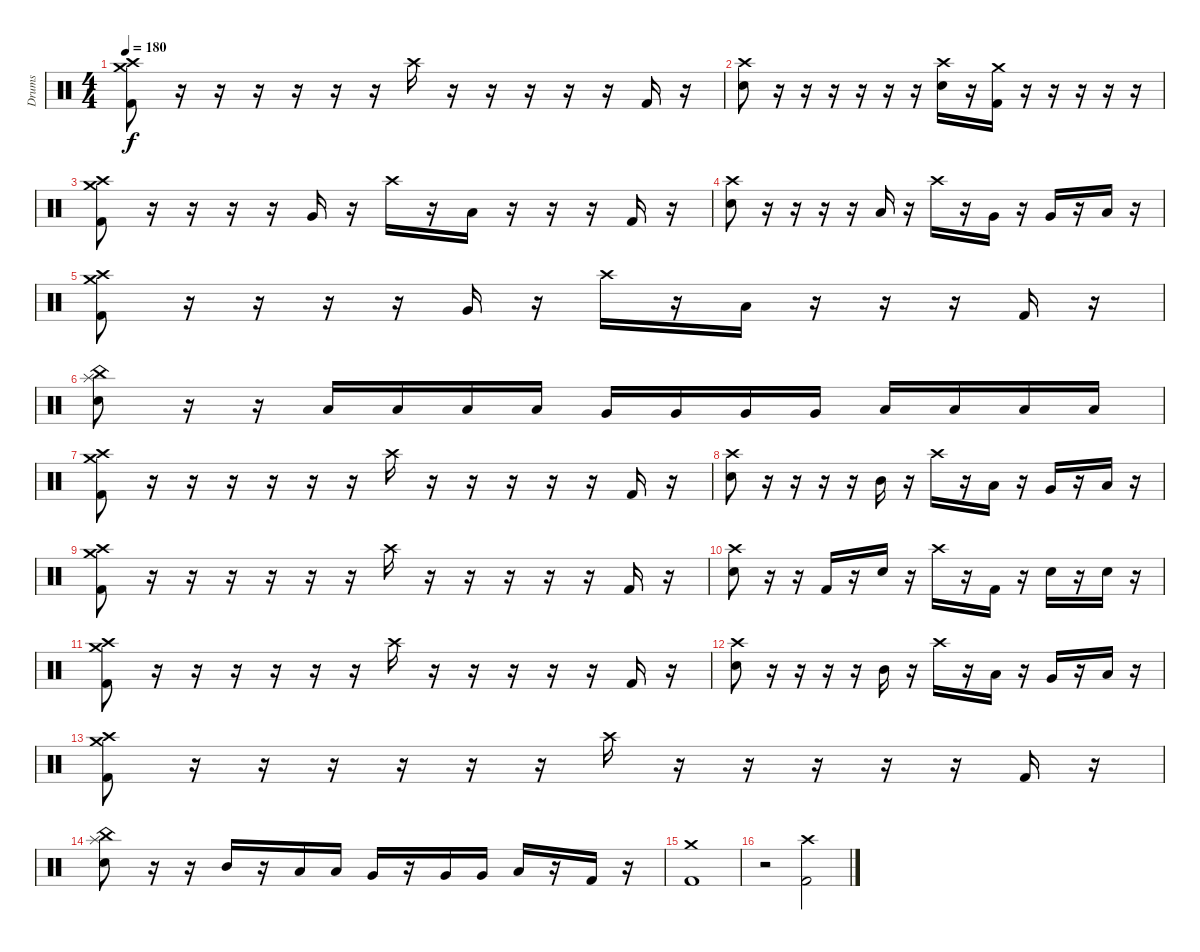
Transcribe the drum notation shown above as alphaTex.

\track ("Drums" "Drums") {instrument percussion}
\staff {score}
\articulation defaults
\ts (4 4)
\tempo 180
\clef neutral
\ks c
("Crash high (hit)" "Crash medium (hit)" "Kick (hit) 2").8{dy f} r.16 r.16 r.16 r.16 r.16 r.16 "Crash high (hit)".16 r.16 r.16 r.16 r.16 r.16 "Kick (hit) 2".16 r.16 |
("Crash high (hit)" "Electric Snare (hit)").8 r.16 r.16 r.16 r.16 r.16 r.16 ("Crash high (hit)" "Electric Snare (hit)").16 r.16 ("Crash medium (hit)" "Kick (hit) 2").16 r.16 r.16 r.16 r.16 r.16 |
("Crash high (hit)" "Crash medium (hit)" "Kick (hit) 2").8 r.16 r.16 r.16 r.16 "Very Low Tom (hit)".16 r.16 "Crash high (hit)".16 r.16 "Low Tom (hit)".16 r.16 r.16 r.16 "Kick (hit) 2".16 r.16 |
("Crash high (hit)" "Electric Snare (hit)").8 r.16 r.16 r.16 r.16 "Low Tom (hit)".16 r.16 "Crash high (hit)".16 r.16 "Very Low Tom (hit)".16 r.16 "Very Low Tom (hit)".16 r.16 "Low Floor Tom (hit)".16 r.16 |
("Crash high (hit)" "Crash medium (hit)" "Kick (hit) 2").8 r.16 r.16 r.16 r.16 "Very Low Tom (hit)".16 r.16 "Crash high (hit)".16 r.16 "Low Tom (hit)".16 r.16 r.16 r.16 "Kick (hit) 2".16 r.16 |
("China (hit)" "Splash (hit)" "Electric Snare (hit)").8 r.16 r.16 "Low Tom (hit)".16 "Low Tom (hit)".16 "Low Tom (hit)".16 "Low Tom (hit)".16 "Very Low Tom (hit)".16 "Very Low Tom (hit)".16 "Very Low Tom (hit)".16 "Very Low Tom (hit)".16 "Low Floor Tom (hit)".16 "Low Floor Tom (hit)".16 "Low Floor Tom (hit)".16 "Low Floor Tom (hit)".16 |
("Crash medium (hit)" "Crash high (hit)" "Kick (hit) 2").8 r.16 r.16 r.16 r.16 r.16 r.16 "Crash high (hit)".16 r.16 r.16 r.16 r.16 r.16 "Kick (hit) 2".16 r.16 |
("Crash high (hit)" "Electric Snare (hit)").8 r.16 r.16 r.16 r.16 "Mid Tom (hit)".16 r.16 "Crash high (hit)".16 r.16 "Low Tom (hit)".16 r.16 "Very Low Tom (hit)".16 r.16 "Low Floor Tom (hit)".16 r.16 |
("Crash medium (hit)" "Crash high (hit)" "Kick (hit) 2").8 r.16 r.16 r.16 r.16 r.16 r.16 "Crash high (hit)".16 r.16 r.16 r.16 r.16 r.16 "Kick (hit) 2".16 r.16 |
("Crash high (hit)" "Electric Snare (hit)").8 r.16 r.16 "Kick (hit) 2".16 r.16 "Electric Snare (hit)".16 r.16 "Crash high (hit)".16 r.16 "Kick (hit) 2".16 r.16 "Electric Snare (hit)".16 r.16 "Electric Snare (hit)".16 r.16 |
("Crash medium (hit)" "Crash high (hit)" "Kick (hit) 2").8 r.16 r.16 r.16 r.16 r.16 r.16 "Crash high (hit)".16 r.16 r.16 r.16 r.16 r.16 "Kick (hit) 2".16 r.16 |
("Crash high (hit)" "Electric Snare (hit)").8 r.16 r.16 r.16 r.16 "Mid Tom (hit)".16 r.16 "Crash high (hit)".16 r.16 "Low Tom (hit)".16 r.16 "Very Low Tom (hit)".16 r.16 "Low Floor Tom (hit)".16 r.16 |
("Crash medium (hit)" "Crash high (hit)" "Kick (hit) 2").8 r.16 r.16 r.16 r.16 r.16 r.16 "Crash high (hit)".16 r.16 r.16 r.16 r.16 r.16 "Kick (hit) 2".16 r.16 |
("China (hit)" "Splash (hit)" "Electric Snare (hit)").8 r.16 r.16 "Mid Tom (hit)".16 r.16 "Low Tom (hit)".16 "Low Tom (hit)".16 "Very Low Tom (hit)".16 r.16 "Very Low Tom (hit)".16 "Very Low Tom (hit)".16 "Low Floor Tom (hit)".16 r.16 "Kick (hit) 2".16 r.16 |
("Crash medium (hit)" "Kick (hit) 2").1 |
r.2 ("Crash high (hit)" "Kick (hit) 2").2
